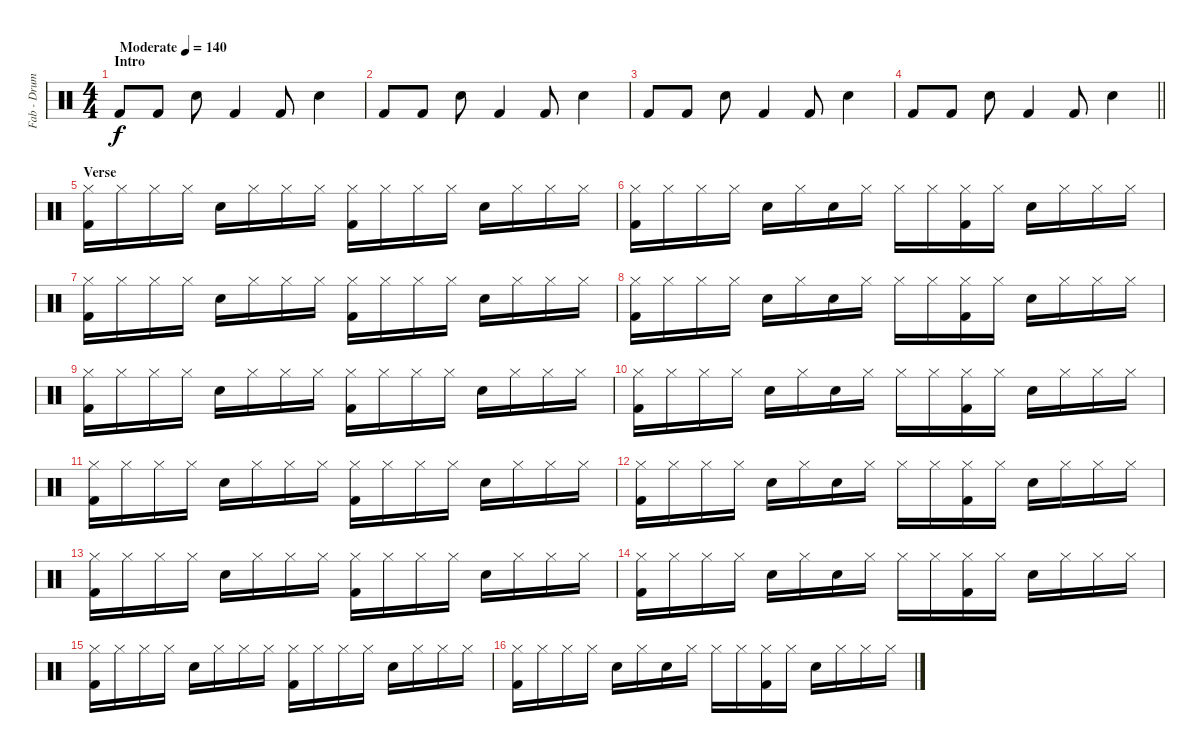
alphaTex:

\track ("Fab - Drums MIDI" "Fab - Drum") {instrument percussion}
\staff {score}
\articulation defaults
\ts (4 4)
\section ("" "Intro")
\tempo (140 "Moderate")
\clef neutral
\ks c "Kick (hit) 2".8{dy f} "Kick (hit) 2".8 "Snare (hit) 2".8 "Kick (hit) 2".4 "Kick (hit) 2".8 "Snare (hit) 2".4
|
"Kick (hit) 2".8 "Kick (hit) 2".8 "Snare (hit) 2".8 "Kick (hit) 2".4 "Kick (hit) 2".8 "Snare (hit) 2".4 |
"Kick (hit) 2".8 "Kick (hit) 2".8 "Snare (hit) 2".8 "Kick (hit) 2".4 "Kick (hit) 2".8 "Snare (hit) 2".4 |
\barLineRight lightlight "Kick (hit) 2".8 "Kick (hit) 2".8 "Snare (hit) 2".8 "Kick (hit) 2".4 "Kick (hit) 2".8 "Snare (hit) 2".4
|
\section ("" "Verse")
("Hi-Hat (closed)" "Kick (hit) 2").16 "Hi-Hat (closed)".16 "Hi-Hat (closed)".16 "Hi-Hat (closed)".16 "Snare (hit) 2".16 "Hi-Hat (closed)".16 "Hi-Hat (closed)".16 "Hi-Hat (closed)".16 ("Hi-Hat (closed)" "Kick (hit) 2").16 "Hi-Hat (closed)".16 "Hi-Hat (closed)".16 "Hi-Hat (closed)".16 "Snare (hit) 2".16 "Hi-Hat (closed)".16 "Hi-Hat (closed)".16 "Hi-Hat (closed)".16 |
("Hi-Hat (closed)" "Kick (hit) 2").16 "Hi-Hat (closed)".16 "Hi-Hat (closed)".16 "Hi-Hat (closed)".16 "Snare (hit) 2".16 "Hi-Hat (closed)".16 "Snare (hit) 2".16 "Hi-Hat (closed)".16 "Hi-Hat (closed)".16 "Hi-Hat (closed)".16 ("Hi-Hat (closed)" "Kick (hit) 2").16 "Hi-Hat (closed)".16 "Snare (hit) 2".16 "Hi-Hat (closed)".16 "Hi-Hat (closed)".16 "Hi-Hat (closed)".16 |
("Hi-Hat (closed)" "Kick (hit) 2").16 "Hi-Hat (closed)".16 "Hi-Hat (closed)".16 "Hi-Hat (closed)".16 "Snare (hit) 2".16 "Hi-Hat (closed)".16 "Hi-Hat (closed)".16 "Hi-Hat (closed)".16 ("Hi-Hat (closed)" "Kick (hit) 2").16 "Hi-Hat (closed)".16 "Hi-Hat (closed)".16 "Hi-Hat (closed)".16 "Snare (hit) 2".16 "Hi-Hat (closed)".16 "Hi-Hat (closed)".16 "Hi-Hat (closed)".16 |
("Hi-Hat (closed)" "Kick (hit) 2").16 "Hi-Hat (closed)".16 "Hi-Hat (closed)".16 "Hi-Hat (closed)".16 "Snare (hit) 2".16 "Hi-Hat (closed)".16 "Snare (hit) 2".16 "Hi-Hat (closed)".16 "Hi-Hat (closed)".16 "Hi-Hat (closed)".16 ("Hi-Hat (closed)" "Kick (hit) 2").16 "Hi-Hat (closed)".16 "Snare (hit) 2".16 "Hi-Hat (closed)".16 "Hi-Hat (closed)".16 "Hi-Hat (closed)".16 |
("Hi-Hat (closed)" "Kick (hit) 2").16 "Hi-Hat (closed)".16 "Hi-Hat (closed)".16 "Hi-Hat (closed)".16 "Snare (hit) 2".16 "Hi-Hat (closed)".16 "Hi-Hat (closed)".16 "Hi-Hat (closed)".16 ("Hi-Hat (closed)" "Kick (hit) 2").16 "Hi-Hat (closed)".16 "Hi-Hat (closed)".16 "Hi-Hat (closed)".16 "Snare (hit) 2".16 "Hi-Hat (closed)".16 "Hi-Hat (closed)".16 "Hi-Hat (closed)".16 |
("Hi-Hat (closed)" "Kick (hit) 2").16 "Hi-Hat (closed)".16 "Hi-Hat (closed)".16 "Hi-Hat (closed)".16 "Snare (hit) 2".16 "Hi-Hat (closed)".16 "Snare (hit) 2".16 "Hi-Hat (closed)".16 "Hi-Hat (closed)".16 "Hi-Hat (closed)".16 ("Hi-Hat (closed)" "Kick (hit) 2").16 "Hi-Hat (closed)".16 "Snare (hit) 2".16 "Hi-Hat (closed)".16 "Hi-Hat (closed)".16 "Hi-Hat (closed)".16 |
("Hi-Hat (closed)" "Kick (hit) 2").16 "Hi-Hat (closed)".16 "Hi-Hat (closed)".16 "Hi-Hat (closed)".16 "Snare (hit) 2".16 "Hi-Hat (closed)".16 "Hi-Hat (closed)".16 "Hi-Hat (closed)".16 ("Hi-Hat (closed)" "Kick (hit) 2").16 "Hi-Hat (closed)".16 "Hi-Hat (closed)".16 "Hi-Hat (closed)".16 "Snare (hit) 2".16 "Hi-Hat (closed)".16 "Hi-Hat (closed)".16 "Hi-Hat (closed)".16 |
("Hi-Hat (closed)" "Kick (hit) 2").16 "Hi-Hat (closed)".16 "Hi-Hat (closed)".16 "Hi-Hat (closed)".16 "Snare (hit) 2".16 "Hi-Hat (closed)".16 "Snare (hit) 2".16 "Hi-Hat (closed)".16 "Hi-Hat (closed)".16 "Hi-Hat (closed)".16 ("Hi-Hat (closed)" "Kick (hit) 2").16 "Hi-Hat (closed)".16 "Snare (hit) 2".16 "Hi-Hat (closed)".16 "Hi-Hat (closed)".16 "Hi-Hat (closed)".16 |
("Hi-Hat (closed)" "Kick (hit) 2").16 "Hi-Hat (closed)".16 "Hi-Hat (closed)".16 "Hi-Hat (closed)".16 "Snare (hit) 2".16 "Hi-Hat (closed)".16 "Hi-Hat (closed)".16 "Hi-Hat (closed)".16 ("Hi-Hat (closed)" "Kick (hit) 2").16 "Hi-Hat (closed)".16 "Hi-Hat (closed)".16 "Hi-Hat (closed)".16 "Snare (hit) 2".16 "Hi-Hat (closed)".16 "Hi-Hat (closed)".16 "Hi-Hat (closed)".16 |
("Hi-Hat (closed)" "Kick (hit) 2").16 "Hi-Hat (closed)".16 "Hi-Hat (closed)".16 "Hi-Hat (closed)".16 "Snare (hit) 2".16 "Hi-Hat (closed)".16 "Snare (hit) 2".16 "Hi-Hat (closed)".16 "Hi-Hat (closed)".16 "Hi-Hat (closed)".16 ("Hi-Hat (closed)" "Kick (hit) 2").16 "Hi-Hat (closed)".16 "Snare (hit) 2".16 "Hi-Hat (closed)".16 "Hi-Hat (closed)".16 "Hi-Hat (closed)".16 |
("Hi-Hat (closed)" "Kick (hit) 2").16 "Hi-Hat (closed)".16 "Hi-Hat (closed)".16 "Hi-Hat (closed)".16 "Snare (hit) 2".16 "Hi-Hat (closed)".16 "Hi-Hat (closed)".16 "Hi-Hat (closed)".16 ("Hi-Hat (closed)" "Kick (hit) 2").16 "Hi-Hat (closed)".16 "Hi-Hat (closed)".16 "Hi-Hat (closed)".16 "Snare (hit) 2".16 "Hi-Hat (closed)".16 "Hi-Hat (closed)".16 "Hi-Hat (closed)".16 |
("Hi-Hat (closed)" "Kick (hit) 2").16 "Hi-Hat (closed)".16 "Hi-Hat (closed)".16 "Hi-Hat (closed)".16 "Snare (hit) 2".16 "Hi-Hat (closed)".16 "Snare (hit) 2".16 "Hi-Hat (closed)".16 "Hi-Hat (closed)".16 "Hi-Hat (closed)".16 ("Hi-Hat (closed)" "Kick (hit) 2").16 "Hi-Hat (closed)".16 "Snare (hit) 2".16 "Hi-Hat (closed)".16 "Hi-Hat (closed)".16 "Hi-Hat (closed)".16
